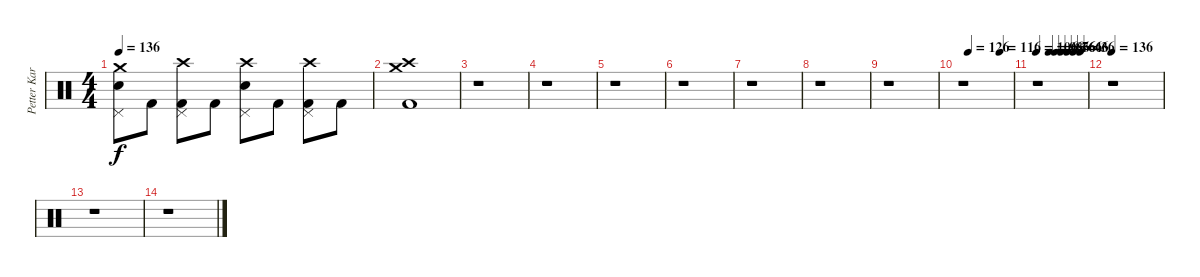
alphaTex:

\track ("Petter Karlsson" "Petter Kar") {instrument percussion}
\staff {score}
\articulation defaults
\ts (4 4)
\tempo 136
\clef neutral
\ks c
("Crash medium (hit)" "Snare (hit) 2" "Pedal Hi-Hat (hit)").8{dy f} "Kick (hit) 2".8 ("Crash high (hit)" "Pedal Hi-Hat (hit)" "Kick (hit) 2").8 "Kick (hit) 2".8 ("Crash high (hit)" "Snare (hit) 2" "Pedal Hi-Hat (hit)").8 "Kick (hit) 2".8 ("Crash high (hit)" "Pedal Hi-Hat (hit)" "Kick (hit) 2").8 "Kick (hit) 2".8 |
("Crash high (hit)" "Crash medium (hit)" "Kick (hit) 2").1 |
r.1 |
r.1 |
r.1 |
r.1 |
r.1 |
r.1 |
r.1 |
\tempo (126 0.125)
\tempo (116 0.75)
r.1 |
\tempo 106
\tempo (96 0.25)
\tempo (86 0.375)
\tempo (76 0.5)
\tempo (66 0.625)
\tempo (46 0.75)
\tempo (36 0.875)
r.1 |
\tempo 136
r.1 |
r.1 |
r.1
